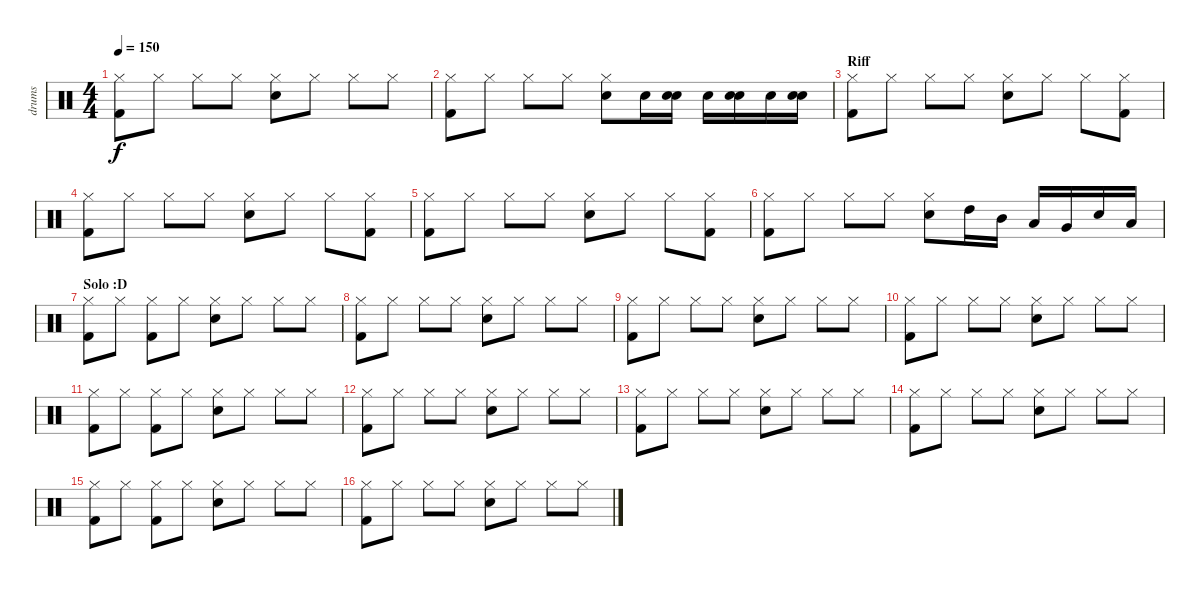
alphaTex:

\track ("drums" "drums") {instrument percussion}
\staff {score}
\articulation defaults
\ts (4 4)
\tempo 150
\clef neutral
\ks c
("Hi-Hat (closed)" "Kick (hit) 2").8{dy f} "Hi-Hat (closed)".8 "Hi-Hat (closed)".8 "Hi-Hat (closed)".8 ("Hi-Hat (closed)" "Snare (hit) 2").8 "Hi-Hat (closed)".8 "Hi-Hat (closed)".8 "Hi-Hat (closed)".8 |
("Hi-Hat (closed)" "Kick (hit) 2").8 "Hi-Hat (closed)".8 "Hi-Hat (closed)".8 "Hi-Hat (closed)".8 ("Hi-Hat (closed)" "Snare (hit) 2").8 "Snare (hit) 2".16 ("Snare (hit) 2" "Snare (hit) 2").16 "Snare (hit) 2".16 ("Snare (hit) 2" "Snare (hit) 2").16 "Snare (hit) 2".16 ("Snare (hit) 2" "Snare (hit) 2").16 |
\section ("" "Riff")
("Hi-Hat (closed)" "Kick (hit) 2").8 "Hi-Hat (closed)".8 "Hi-Hat (closed)".8 "Hi-Hat (closed)".8 ("Hi-Hat (closed)" "Snare (hit) 2").8 "Hi-Hat (closed)".8 "Hi-Hat (closed)".8 ("Hi-Hat (closed)" "Kick (hit) 2").8 |
("Hi-Hat (closed)" "Kick (hit) 2").8 "Hi-Hat (closed)".8 "Hi-Hat (closed)".8 "Hi-Hat (closed)".8 ("Hi-Hat (closed)" "Snare (hit) 2").8 "Hi-Hat (closed)".8 "Hi-Hat (closed)".8 ("Hi-Hat (closed)" "Kick (hit) 2").8 |
("Hi-Hat (closed)" "Kick (hit) 2").8 "Hi-Hat (closed)".8 "Hi-Hat (closed)".8 "Hi-Hat (closed)".8 ("Hi-Hat (closed)" "Snare (hit) 2").8 "Hi-Hat (closed)".8 "Hi-Hat (closed)".8 ("Hi-Hat (closed)" "Kick (hit) 2").8 |
("Hi-Hat (closed)" "Kick (hit) 2").8 "Hi-Hat (closed)".8 "Hi-Hat (closed)".8 "Hi-Hat (closed)".8 ("Hi-Hat (closed)" "Snare (hit) 2").8 "High Tom (hit)".16 "Mid Tom (hit)".16 "Low Tom (hit)".16 "Very Low Tom (hit)".16 "Snare (hit) 2".16 "Low Floor Tom (hit)".16 |
\section ("" "Solo :D")
("Hi-Hat (closed)" "Kick (hit) 2").8 "Hi-Hat (closed)".8 ("Hi-Hat (closed)" "Kick (hit) 2").8 "Hi-Hat (closed)".8 ("Hi-Hat (closed)" "Snare (hit) 2").8 "Hi-Hat (closed)".8 "Hi-Hat (closed)".8 "Hi-Hat (closed)".8 |
("Hi-Hat (closed)" "Kick (hit) 2").8 "Hi-Hat (closed)".8 "Hi-Hat (closed)".8 "Hi-Hat (closed)".8 ("Hi-Hat (closed)" "Snare (hit) 2").8 "Hi-Hat (closed)".8 "Hi-Hat (closed)".8 "Hi-Hat (closed)".8 |
("Hi-Hat (closed)" "Kick (hit) 2").8 "Hi-Hat (closed)".8 "Hi-Hat (closed)".8 "Hi-Hat (closed)".8 ("Hi-Hat (closed)" "Snare (hit) 2").8 "Hi-Hat (closed)".8 "Hi-Hat (closed)".8 "Hi-Hat (closed)".8 |
("Hi-Hat (closed)" "Kick (hit) 2").8 "Hi-Hat (closed)".8 "Hi-Hat (closed)".8 "Hi-Hat (closed)".8 ("Hi-Hat (closed)" "Snare (hit) 2").8 "Hi-Hat (closed)".8 "Hi-Hat (closed)".8 "Hi-Hat (closed)".8 |
("Hi-Hat (closed)" "Kick (hit) 2").8 "Hi-Hat (closed)".8 ("Hi-Hat (closed)" "Kick (hit) 2").8 "Hi-Hat (closed)".8 ("Hi-Hat (closed)" "Snare (hit) 2").8 "Hi-Hat (closed)".8 "Hi-Hat (closed)".8 "Hi-Hat (closed)".8 |
("Hi-Hat (closed)" "Kick (hit) 2").8 "Hi-Hat (closed)".8 "Hi-Hat (closed)".8 "Hi-Hat (closed)".8 ("Hi-Hat (closed)" "Snare (hit) 2").8 "Hi-Hat (closed)".8 "Hi-Hat (closed)".8 "Hi-Hat (closed)".8 |
("Hi-Hat (closed)" "Kick (hit) 2").8 "Hi-Hat (closed)".8 "Hi-Hat (closed)".8 "Hi-Hat (closed)".8 ("Hi-Hat (closed)" "Snare (hit) 2").8 "Hi-Hat (closed)".8 "Hi-Hat (closed)".8 "Hi-Hat (closed)".8 |
("Hi-Hat (closed)" "Kick (hit) 2").8 "Hi-Hat (closed)".8 "Hi-Hat (closed)".8 "Hi-Hat (closed)".8 ("Hi-Hat (closed)" "Snare (hit) 2").8 "Hi-Hat (closed)".8 "Hi-Hat (closed)".8 "Hi-Hat (closed)".8 |
("Hi-Hat (closed)" "Kick (hit) 2").8 "Hi-Hat (closed)".8 ("Hi-Hat (closed)" "Kick (hit) 2").8 "Hi-Hat (closed)".8 ("Hi-Hat (closed)" "Snare (hit) 2").8 "Hi-Hat (closed)".8 "Hi-Hat (closed)".8 "Hi-Hat (closed)".8 |
("Hi-Hat (closed)" "Kick (hit) 2").8 "Hi-Hat (closed)".8 "Hi-Hat (closed)".8 "Hi-Hat (closed)".8 ("Hi-Hat (closed)" "Snare (hit) 2").8 "Hi-Hat (closed)".8 "Hi-Hat (closed)".8 "Hi-Hat (closed)".8
